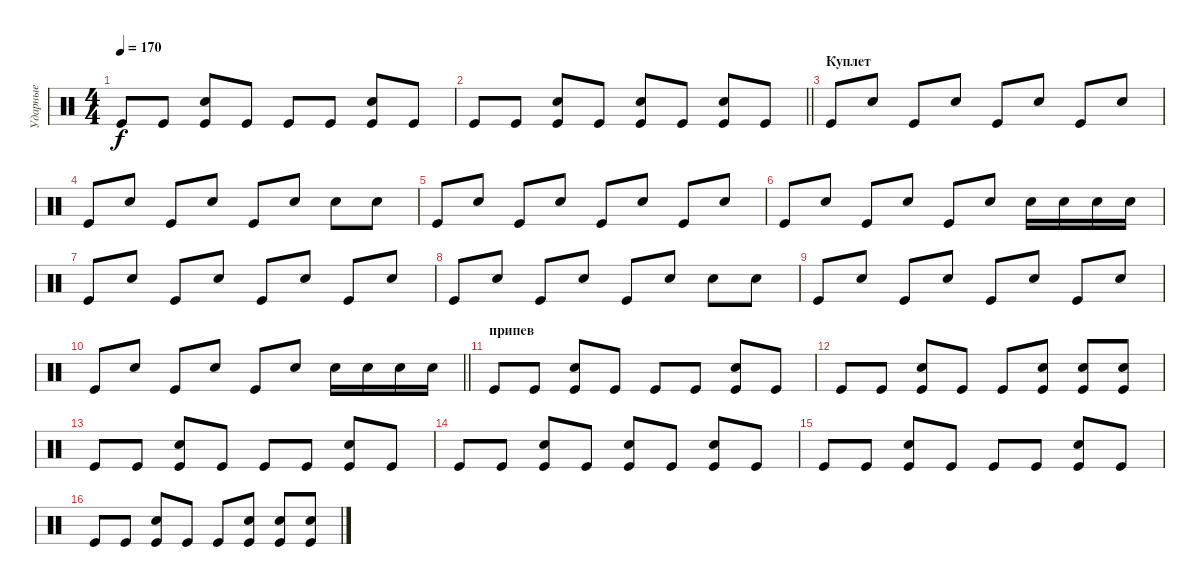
\track ("Ударные" "Ударные") {instrument percussion}
\staff {score}
\articulation defaults
\ts (4 4)
\tempo 170
\clef neutral
\ks c "Kick (hit)".8{dy f} "Kick (hit)".8
("Kick (hit)" "Snare (hit) 2").8 "Kick (hit)".8 "Kick (hit)".8 "Kick (hit)".8 ("Kick (hit)" "Snare (hit) 2").8 "Kick (hit)".8 |
\barLineRight lightlight "Kick (hit)".8 "Kick (hit)".8
("Kick (hit)" "Snare (hit) 2").8 "Kick (hit)".8 ("Snare (hit) 2" "Kick (hit)").8 "Kick (hit)".8 ("Snare (hit) 2" "Kick (hit)").8 "Kick (hit)".8 |
\section ("" "Куплет")
"Kick (hit)".8 "Snare (hit) 2".8 "Kick (hit)".8 "Snare (hit) 2".8 "Kick (hit)".8 "Snare (hit) 2".8 "Kick (hit)".8 "Snare (hit) 2".8 |
"Kick (hit)".8 "Snare (hit) 2".8 "Kick (hit)".8 "Snare (hit) 2".8 "Kick (hit)".8 "Snare (hit) 2".8 "Snare (hit) 2".8 "Snare (hit) 2".8 |
"Kick (hit)".8 "Snare (hit) 2".8 "Kick (hit)".8 "Snare (hit) 2".8 "Kick (hit)".8 "Snare (hit) 2".8 "Kick (hit)".8 "Snare (hit) 2".8 |
"Kick (hit)".8 "Snare (hit) 2".8 "Kick (hit)".8 "Snare (hit) 2".8 "Kick (hit)".8 "Snare (hit) 2".8 "Snare (hit) 2".16 "Snare (hit) 2".16 "Snare (hit) 2".16 "Snare (hit) 2".16 |
"Kick (hit)".8 "Snare (hit) 2".8 "Kick (hit)".8 "Snare (hit) 2".8 "Kick (hit)".8 "Snare (hit) 2".8 "Kick (hit)".8 "Snare (hit) 2".8 |
"Kick (hit)".8 "Snare (hit) 2".8 "Kick (hit)".8 "Snare (hit) 2".8 "Kick (hit)".8 "Snare (hit) 2".8 "Snare (hit) 2".8 "Snare (hit) 2".8 |
"Kick (hit)".8 "Snare (hit) 2".8 "Kick (hit)".8 "Snare (hit) 2".8 "Kick (hit)".8 "Snare (hit) 2".8 "Kick (hit)".8 "Snare (hit) 2".8 |
\barLineRight lightlight "Kick (hit)".8 "Snare (hit) 2".8 "Kick (hit)".8 "Snare (hit) 2".8 "Kick (hit)".8 "Snare (hit) 2".8 "Snare (hit) 2".16 "Snare (hit) 2".16 "Snare (hit) 2".16 "Snare (hit) 2".16
|
\section ("" "припев")
"Kick (hit)".8 "Kick (hit)".8 ("Kick (hit)" "Snare (hit) 2").8 "Kick (hit)".8 "Kick (hit)".8 "Kick (hit)".8 ("Kick (hit)" "Snare (hit) 2").8 "Kick (hit)".8 |
"Kick (hit)".8 "Kick (hit)".8 ("Kick (hit)" "Snare (hit) 2").8 "Kick (hit)".8 "Kick (hit)".8 ("Kick (hit)" "Snare (hit) 2").8 ("Kick (hit)" "Snare (hit) 2").8 ("Kick (hit)" "Snare (hit) 2").8 |
"Kick (hit)".8 "Kick (hit)".8 ("Kick (hit)" "Snare (hit) 2").8 "Kick (hit)".8 "Kick (hit)".8 "Kick (hit)".8 ("Kick (hit)" "Snare (hit) 2").8 "Kick (hit)".8 |
"Kick (hit)".8 "Kick (hit)".8 ("Kick (hit)" "Snare (hit) 2").8 "Kick (hit)".8 ("Snare (hit) 2" "Kick (hit)").8 "Kick (hit)".8 ("Snare (hit) 2" "Kick (hit)").8 "Kick (hit)".8 |
"Kick (hit)".8 "Kick (hit)".8 ("Kick (hit)" "Snare (hit) 2").8 "Kick (hit)".8 "Kick (hit)".8 "Kick (hit)".8 ("Kick (hit)" "Snare (hit) 2").8 "Kick (hit)".8 |
"Kick (hit)".8 "Kick (hit)".8 ("Kick (hit)" "Snare (hit) 2").8 "Kick (hit)".8 "Kick (hit)".8 ("Kick (hit)" "Snare (hit) 2").8 ("Kick (hit)" "Snare (hit) 2").8 ("Kick (hit)" "Snare (hit) 2").8
